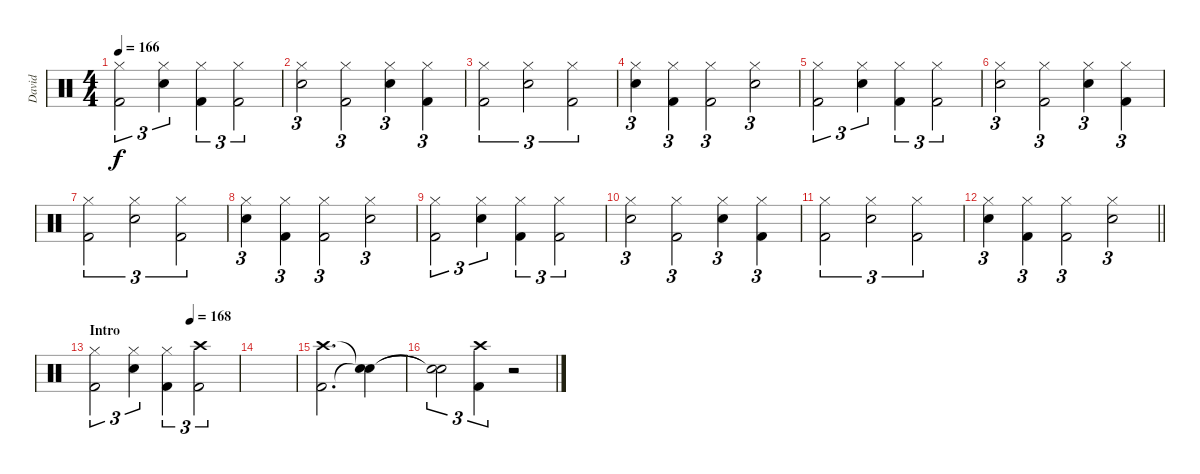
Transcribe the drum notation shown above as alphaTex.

\track ("David" "David") {instrument percussion}
\staff {score}
\articulation defaults
\ts (4 4)
\tempo 166
\clef neutral
\ks c
("Hi-Hat (closed)" "Kick (hit) 2").2{tu (3 2) dy f} ("Hi-Hat (closed)" "Snare (hit) 2").4{tu (3 2)} ("Hi-Hat (closed)" "Kick (hit) 2").4{tu (3 2)} ("Hi-Hat (closed)" "Kick (hit) 2").2{tu (3 2)} |
("Hi-Hat (closed)" "Snare (hit) 2").2{tu (3 2)} ("Hi-Hat (closed)" "Kick (hit) 2").2{tu (3 2)} ("Hi-Hat (closed)" "Snare (hit) 2").4{tu (3 2)} ("Hi-Hat (closed)" "Kick (hit) 2").4{tu (3 2)} |
("Hi-Hat (closed)" "Kick (hit) 2").2{tu (3 2)} ("Hi-Hat (closed)" "Snare (hit) 2").2{tu (3 2)} ("Hi-Hat (closed)" "Kick (hit) 2").2{tu (3 2)} |
("Hi-Hat (closed)" "Snare (hit) 2").4{tu (3 2)} ("Hi-Hat (closed)" "Kick (hit) 2").4{tu (3 2)} ("Hi-Hat (closed)" "Kick (hit) 2").2{tu (3 2)} ("Hi-Hat (closed)" "Snare (hit) 2").2{tu (3 2)} |
("Hi-Hat (closed)" "Kick (hit) 2").2{tu (3 2)} ("Hi-Hat (closed)" "Snare (hit) 2").4{tu (3 2)} ("Hi-Hat (closed)" "Kick (hit) 2").4{tu (3 2)} ("Hi-Hat (closed)" "Kick (hit) 2").2{tu (3 2)} |
("Hi-Hat (closed)" "Snare (hit) 2").2{tu (3 2)} ("Hi-Hat (closed)" "Kick (hit) 2").2{tu (3 2)} ("Hi-Hat (closed)" "Snare (hit) 2").4{tu (3 2)} ("Hi-Hat (closed)" "Kick (hit) 2").4{tu (3 2)} |
("Hi-Hat (closed)" "Kick (hit) 2").2{tu (3 2)} ("Hi-Hat (closed)" "Snare (hit) 2").2{tu (3 2)} ("Hi-Hat (closed)" "Kick (hit) 2").2{tu (3 2)} |
("Hi-Hat (closed)" "Snare (hit) 2").4{tu (3 2)} ("Hi-Hat (closed)" "Kick (hit) 2").4{tu (3 2)} ("Hi-Hat (closed)" "Kick (hit) 2").2{tu (3 2)} ("Hi-Hat (closed)" "Snare (hit) 2").2{tu (3 2)} |
("Hi-Hat (closed)" "Kick (hit) 2").2{tu (3 2)} ("Hi-Hat (closed)" "Snare (hit) 2").4{tu (3 2)} ("Hi-Hat (closed)" "Kick (hit) 2").4{tu (3 2)} ("Hi-Hat (closed)" "Kick (hit) 2").2{tu (3 2)} |
("Hi-Hat (closed)" "Snare (hit) 2").2{tu (3 2)} ("Hi-Hat (closed)" "Kick (hit) 2").2{tu (3 2)} ("Hi-Hat (closed)" "Snare (hit) 2").4{tu (3 2)} ("Hi-Hat (closed)" "Kick (hit) 2").4{tu (3 2)} |
("Hi-Hat (closed)" "Kick (hit) 2").2{tu (3 2)} ("Hi-Hat (closed)" "Snare (hit) 2").2{tu (3 2)} ("Hi-Hat (closed)" "Kick (hit) 2").2{tu (3 2)} |
\barLineRight lightlight
("Hi-Hat (closed)" "Snare (hit) 2").4{tu (3 2)} ("Hi-Hat (closed)" "Kick (hit) 2").4{tu (3 2)} ("Hi-Hat (closed)" "Kick (hit) 2").2{tu (3 2)} ("Hi-Hat (closed)" "Snare (hit) 2").2{tu (3 2)} |
\section ("" "Intro")
\tempo (168 0.6666666666666666)
("Hi-Hat (closed)" "Kick (hit) 2").2{tu (3 2)} ("Hi-Hat (closed)" "Snare (hit) 2").4{tu (3 2)} ("Hi-Hat (closed)" "Kick (hit) 2").4{tu (3 2)} ("Crash high (hit)" "Kick (hit) 2").2{tu (3 2)} |
|
("Crash high (hit)" "Kick (hit) 2").2{d} ("Snare (hit)"{t} "Snare (hit)"{t}).4 |
("Snare (hit)"{t} "Snare (hit)"{t}).2{tu (3 2)} ("Crash high (hit)" "Kick (hit) 2").4{tu (3 2)} r.2
